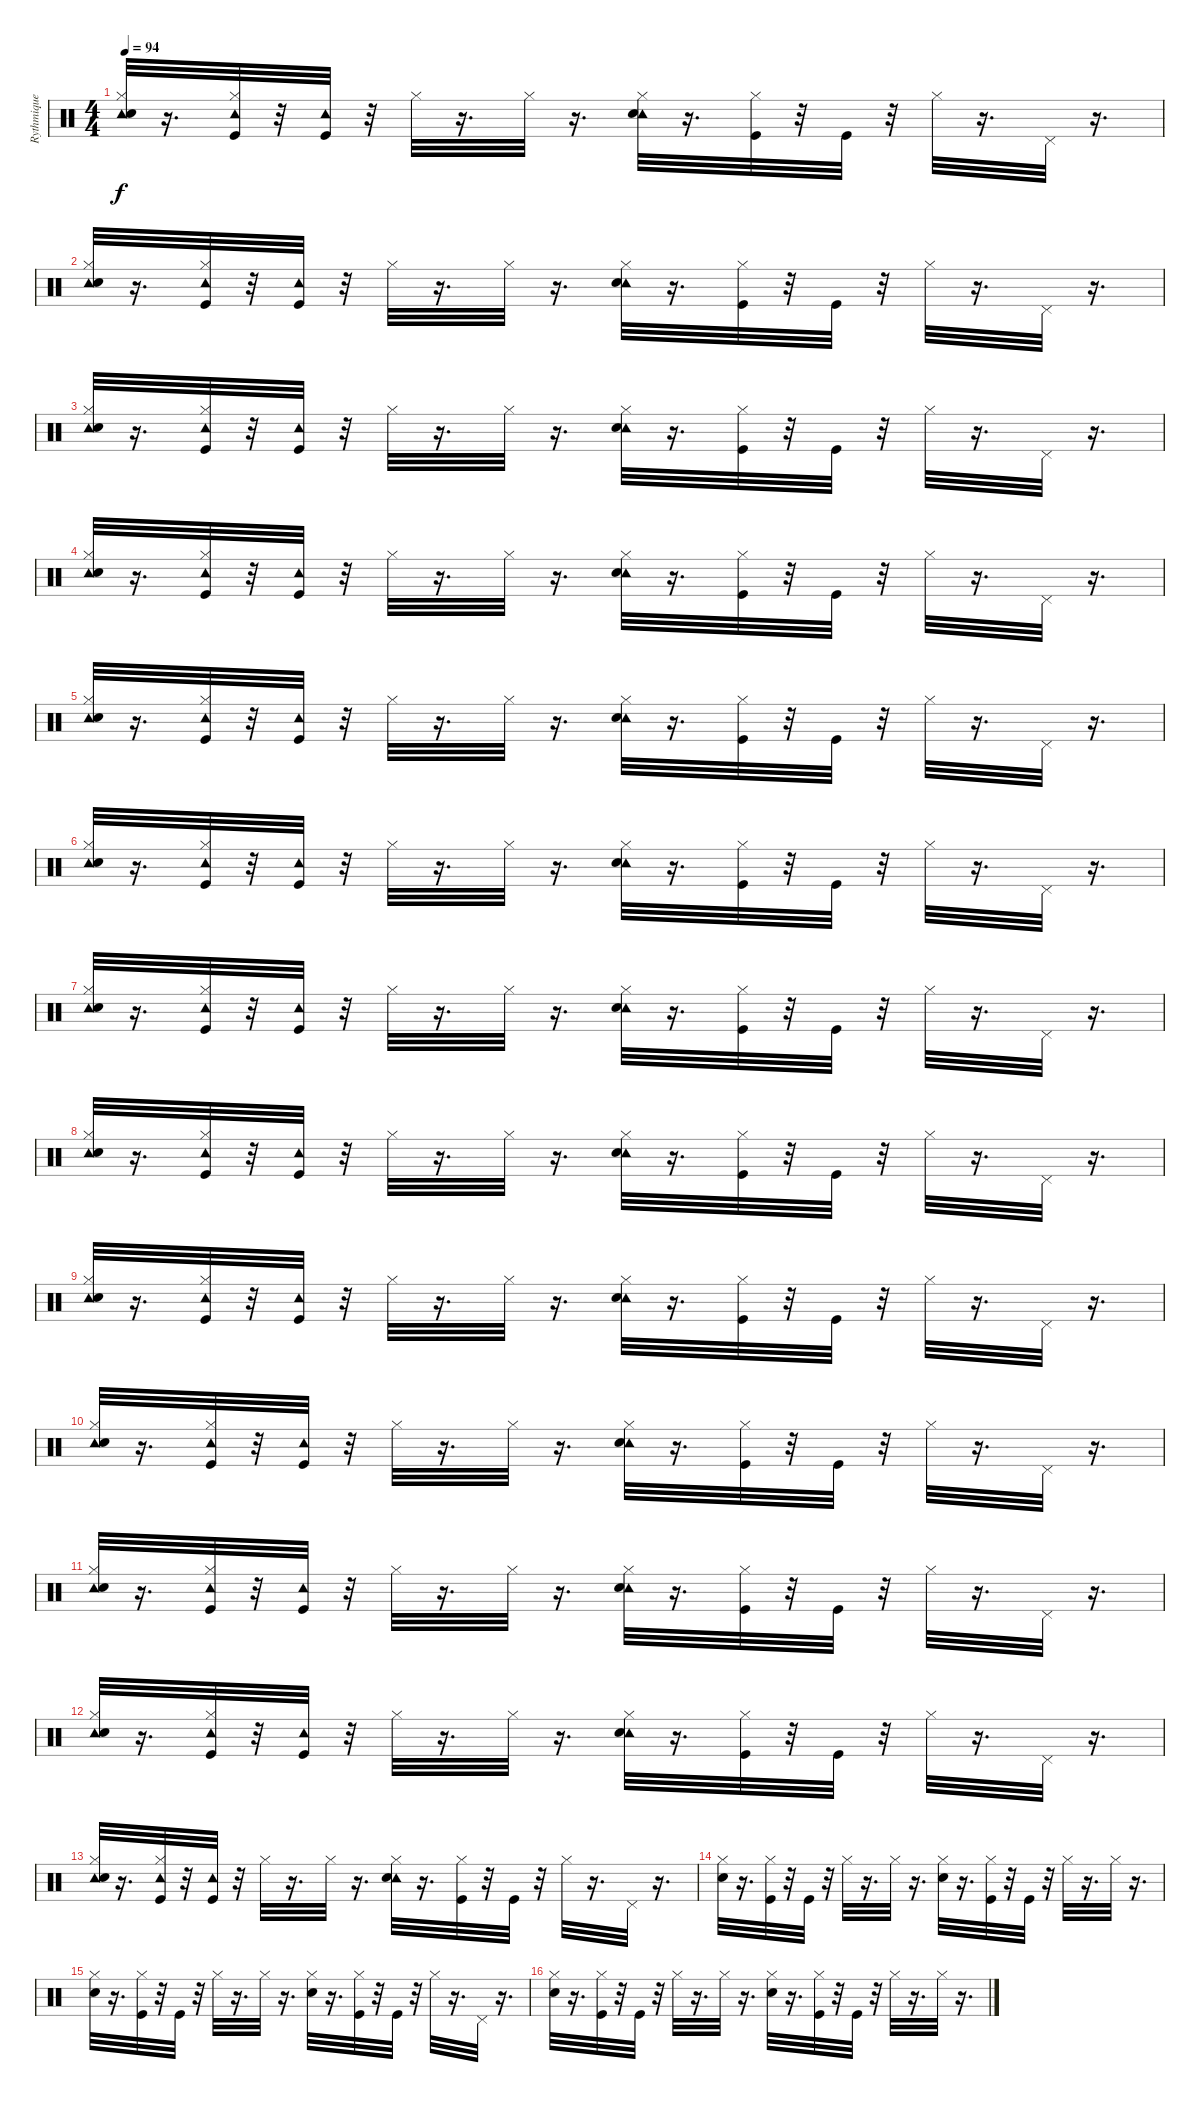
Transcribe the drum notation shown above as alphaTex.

\track ("Rythmique" "Rythmique") {instrument percussion}
\staff {score}
\articulation defaults
\ts (4 4)
\tempo 94
\clef neutral
\ks c
("Tambourine (hit)" "Hi-Hat (closed)" "Electric Snare (hit)").32{dy f} r.16{d} ("Tambourine (hit)" "Hi-Hat (closed)" "Kick (hit)").32 r.32 ("Tambourine (hit)" "Kick (hit)").32 r.32 "Hi-Hat (closed)".32 r.16{d} "Hi-Hat (closed)".32 r.16{d} ("Tambourine (hit)" "Hi-Hat (closed)" "Electric Snare (hit)").32 r.16{d} ("Hi-Hat (closed)" "Kick (hit)").32 r.32 "Kick (hit)".32 r.32 "Hi-Hat (closed)".32 r.16{d} "Pedal Hi-Hat (hit)".32 r.16{d} |
("Tambourine (hit)" "Hi-Hat (closed)" "Electric Snare (hit)").32 r.16{d} ("Tambourine (hit)" "Hi-Hat (closed)" "Kick (hit)").32 r.32 ("Tambourine (hit)" "Kick (hit)").32 r.32 "Hi-Hat (closed)".32 r.16{d} "Hi-Hat (closed)".32 r.16{d} ("Tambourine (hit)" "Hi-Hat (closed)" "Electric Snare (hit)").32 r.16{d} ("Hi-Hat (closed)" "Kick (hit)").32 r.32 "Kick (hit)".32 r.32 "Hi-Hat (closed)".32 r.16{d} "Pedal Hi-Hat (hit)".32 r.16{d} |
("Tambourine (hit)" "Hi-Hat (closed)" "Electric Snare (hit)").32 r.16{d} ("Tambourine (hit)" "Hi-Hat (closed)" "Kick (hit)").32 r.32 ("Tambourine (hit)" "Kick (hit)").32 r.32 "Hi-Hat (closed)".32 r.16{d} "Hi-Hat (closed)".32 r.16{d} ("Tambourine (hit)" "Hi-Hat (closed)" "Electric Snare (hit)").32 r.16{d} ("Hi-Hat (closed)" "Kick (hit)").32 r.32 "Kick (hit)".32 r.32 "Hi-Hat (closed)".32 r.16{d} "Pedal Hi-Hat (hit)".32 r.16{d} |
("Tambourine (hit)" "Hi-Hat (closed)" "Electric Snare (hit)").32 r.16{d} ("Tambourine (hit)" "Hi-Hat (closed)" "Kick (hit)").32 r.32 ("Tambourine (hit)" "Kick (hit)").32 r.32 "Hi-Hat (closed)".32 r.16{d} "Hi-Hat (closed)".32 r.16{d} ("Tambourine (hit)" "Hi-Hat (closed)" "Electric Snare (hit)").32 r.16{d} ("Hi-Hat (closed)" "Kick (hit)").32 r.32 "Kick (hit)".32 r.32 "Hi-Hat (closed)".32 r.16{d} "Pedal Hi-Hat (hit)".32 r.16{d} |
("Tambourine (hit)" "Hi-Hat (closed)" "Electric Snare (hit)").32 r.16{d} ("Tambourine (hit)" "Hi-Hat (closed)" "Kick (hit)").32 r.32 ("Tambourine (hit)" "Kick (hit)").32 r.32 "Hi-Hat (closed)".32 r.16{d} "Hi-Hat (closed)".32 r.16{d} ("Tambourine (hit)" "Hi-Hat (closed)" "Electric Snare (hit)").32 r.16{d} ("Hi-Hat (closed)" "Kick (hit)").32 r.32 "Kick (hit)".32 r.32 "Hi-Hat (closed)".32 r.16{d} "Pedal Hi-Hat (hit)".32 r.16{d} |
("Tambourine (hit)" "Hi-Hat (closed)" "Electric Snare (hit)").32 r.16{d} ("Tambourine (hit)" "Hi-Hat (closed)" "Kick (hit)").32 r.32 ("Tambourine (hit)" "Kick (hit)").32 r.32 "Hi-Hat (closed)".32 r.16{d} "Hi-Hat (closed)".32 r.16{d} ("Tambourine (hit)" "Hi-Hat (closed)" "Electric Snare (hit)").32 r.16{d} ("Hi-Hat (closed)" "Kick (hit)").32 r.32 "Kick (hit)".32 r.32 "Hi-Hat (closed)".32 r.16{d} "Pedal Hi-Hat (hit)".32 r.16{d} |
("Tambourine (hit)" "Hi-Hat (closed)" "Electric Snare (hit)").32 r.16{d} ("Tambourine (hit)" "Hi-Hat (closed)" "Kick (hit)").32 r.32 ("Tambourine (hit)" "Kick (hit)").32 r.32 "Hi-Hat (closed)".32 r.16{d} "Hi-Hat (closed)".32 r.16{d} ("Tambourine (hit)" "Hi-Hat (closed)" "Electric Snare (hit)").32 r.16{d} ("Hi-Hat (closed)" "Kick (hit)").32 r.32 "Kick (hit)".32 r.32 "Hi-Hat (closed)".32 r.16{d} "Pedal Hi-Hat (hit)".32 r.16{d} |
("Tambourine (hit)" "Hi-Hat (closed)" "Electric Snare (hit)").32 r.16{d} ("Tambourine (hit)" "Hi-Hat (closed)" "Kick (hit)").32 r.32 ("Tambourine (hit)" "Kick (hit)").32 r.32 "Hi-Hat (closed)".32 r.16{d} "Hi-Hat (closed)".32 r.16{d} ("Tambourine (hit)" "Hi-Hat (closed)" "Electric Snare (hit)").32 r.16{d} ("Hi-Hat (closed)" "Kick (hit)").32 r.32 "Kick (hit)".32 r.32 "Hi-Hat (closed)".32 r.16{d} "Pedal Hi-Hat (hit)".32 r.16{d} |
("Tambourine (hit)" "Hi-Hat (closed)" "Electric Snare (hit)").32 r.16{d} ("Tambourine (hit)" "Hi-Hat (closed)" "Kick (hit)").32 r.32 ("Tambourine (hit)" "Kick (hit)").32 r.32 "Hi-Hat (closed)".32 r.16{d} "Hi-Hat (closed)".32 r.16{d} ("Tambourine (hit)" "Hi-Hat (closed)" "Electric Snare (hit)").32 r.16{d} ("Hi-Hat (closed)" "Kick (hit)").32 r.32 "Kick (hit)".32 r.32 "Hi-Hat (closed)".32 r.16{d} "Pedal Hi-Hat (hit)".32 r.16{d} |
("Tambourine (hit)" "Hi-Hat (closed)" "Electric Snare (hit)").32 r.16{d} ("Tambourine (hit)" "Hi-Hat (closed)" "Kick (hit)").32 r.32 ("Tambourine (hit)" "Kick (hit)").32 r.32 "Hi-Hat (closed)".32 r.16{d} "Hi-Hat (closed)".32 r.16{d} ("Tambourine (hit)" "Hi-Hat (closed)" "Electric Snare (hit)").32 r.16{d} ("Hi-Hat (closed)" "Kick (hit)").32 r.32 "Kick (hit)".32 r.32 "Hi-Hat (closed)".32 r.16{d} "Pedal Hi-Hat (hit)".32 r.16{d} |
("Tambourine (hit)" "Hi-Hat (closed)" "Electric Snare (hit)").32 r.16{d} ("Tambourine (hit)" "Hi-Hat (closed)" "Kick (hit)").32 r.32 ("Tambourine (hit)" "Kick (hit)").32 r.32 "Hi-Hat (closed)".32 r.16{d} "Hi-Hat (closed)".32 r.16{d} ("Tambourine (hit)" "Hi-Hat (closed)" "Electric Snare (hit)").32 r.16{d} ("Hi-Hat (closed)" "Kick (hit)").32 r.32 "Kick (hit)".32 r.32 "Hi-Hat (closed)".32 r.16{d} "Pedal Hi-Hat (hit)".32 r.16{d} |
("Tambourine (hit)" "Hi-Hat (closed)" "Electric Snare (hit)").32 r.16{d} ("Tambourine (hit)" "Hi-Hat (closed)" "Kick (hit)").32 r.32 ("Tambourine (hit)" "Kick (hit)").32 r.32 "Hi-Hat (closed)".32 r.16{d} "Hi-Hat (closed)".32 r.16{d} ("Tambourine (hit)" "Hi-Hat (closed)" "Electric Snare (hit)").32 r.16{d} ("Hi-Hat (closed)" "Kick (hit)").32 r.32 "Kick (hit)".32 r.32 "Hi-Hat (closed)".32 r.16{d} "Pedal Hi-Hat (hit)".32 r.16{d} |
("Tambourine (hit)" "Hi-Hat (closed)" "Electric Snare (hit)").32 r.16{d} ("Tambourine (hit)" "Hi-Hat (closed)" "Kick (hit)").32 r.32 ("Tambourine (hit)" "Kick (hit)").32 r.32 "Hi-Hat (closed)".32 r.16{d} "Hi-Hat (closed)".32 r.16{d} ("Tambourine (hit)" "Hi-Hat (closed)" "Electric Snare (hit)").32 r.16{d} ("Hi-Hat (closed)" "Kick (hit)").32 r.32 "Kick (hit)".32 r.32 "Hi-Hat (closed)".32 r.16{d} "Pedal Hi-Hat (hit)".32 r.16{d} |
("Hi-Hat (closed)" "Electric Snare (hit)").32 r.16{d} ("Hi-Hat (closed)" "Kick (hit)").32 r.32 "Kick (hit)".32 r.32 "Hi-Hat (closed)".32 r.16{d} "Hi-Hat (closed)".32 r.16{d} ("Hi-Hat (closed)" "Electric Snare (hit)").32 r.16{d} ("Hi-Hat (closed)" "Kick (hit)").32 r.32 "Kick (hit)".32 r.32 "Hi-Hat (closed)".32 r.16{d} "Hi-Hat (closed)".32 r.16{d} |
("Hi-Hat (closed)" "Electric Snare (hit)").32 r.16{d} ("Hi-Hat (closed)" "Kick (hit)").32 r.32 "Kick (hit)".32 r.32 "Hi-Hat (closed)".32 r.16{d} "Hi-Hat (closed)".32 r.16{d} ("Hi-Hat (closed)" "Electric Snare (hit)").32 r.16{d} ("Hi-Hat (closed)" "Kick (hit)").32 r.32 "Kick (hit)".32 r.32 "Hi-Hat (closed)".32 r.16{d} "Pedal Hi-Hat (hit)".32 r.16{d} |
("Hi-Hat (closed)" "Electric Snare (hit)").32 r.16{d} ("Hi-Hat (closed)" "Kick (hit)").32 r.32 "Kick (hit)".32 r.32 "Hi-Hat (closed)".32 r.16{d} "Hi-Hat (closed)".32 r.16{d} ("Hi-Hat (closed)" "Electric Snare (hit)").32 r.16{d} ("Hi-Hat (closed)" "Kick (hit)").32 r.32 "Kick (hit)".32 r.32 "Hi-Hat (closed)".32 r.16{d} "Hi-Hat (closed)".32 r.16{d}
